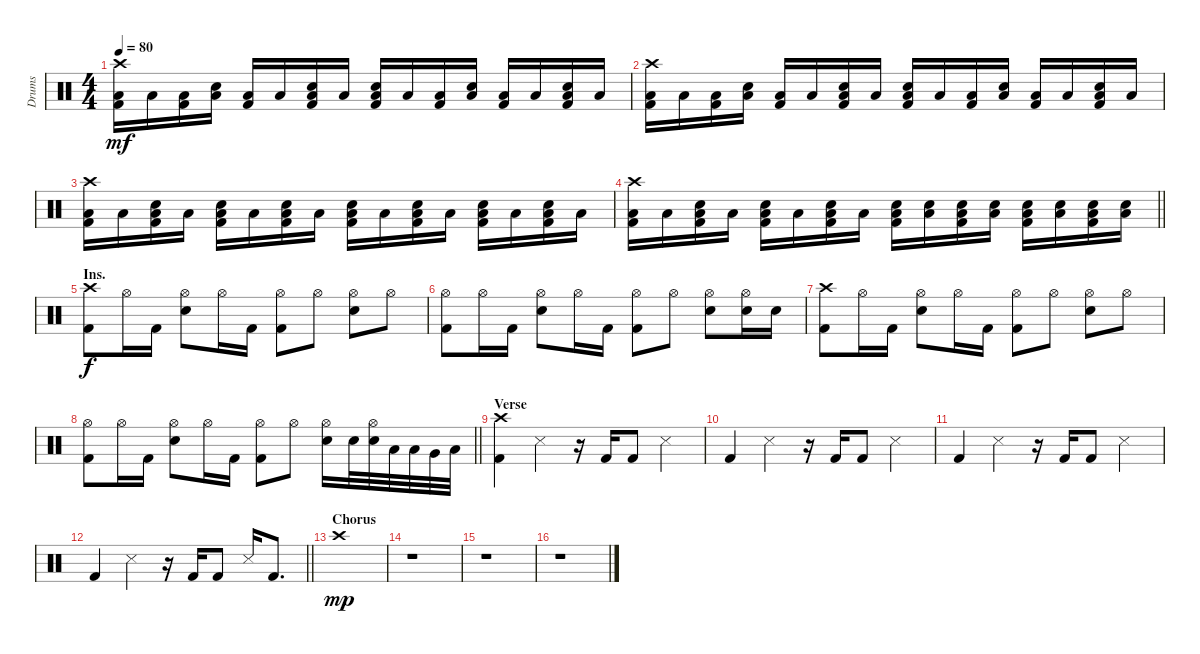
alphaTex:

\track ("Drums" "Drums") {instrument percussion}
\staff {score}
\articulation defaults
\ts (4 4)
\tempo 80
\clef neutral
\ks c
("Crash high (hit)" "Low Floor Tom (hit)" "Kick (hit) 2").16{dy mf} "Low Floor Tom (hit)".16 ("Low Floor Tom (hit)" "Kick (hit) 2").16 ("Electric Snare (hit)" "Low Floor Tom (hit)").16 ("Low Floor Tom (hit)" "Kick (hit) 2").16 "Low Floor Tom (hit)".16 ("Electric Snare (hit)" "Low Floor Tom (hit)" "Kick (hit) 2").16 "Low Floor Tom (hit)".16 ("Electric Snare (hit)" "Low Floor Tom (hit)" "Kick (hit) 2").16 "Low Floor Tom (hit)".16 ("Low Floor Tom (hit)" "Kick (hit) 2").16 ("Electric Snare (hit)" "Low Floor Tom (hit)").16 ("Low Floor Tom (hit)" "Kick (hit) 2").16 "Low Floor Tom (hit)".16 ("Electric Snare (hit)" "Low Floor Tom (hit)" "Kick (hit) 2").16 "Low Floor Tom (hit)".16 |
("Crash high (hit)" "Low Floor Tom (hit)" "Kick (hit) 2").16 "Low Floor Tom (hit)".16 ("Low Floor Tom (hit)" "Kick (hit) 2").16 ("Electric Snare (hit)" "Low Floor Tom (hit)").16 ("Low Floor Tom (hit)" "Kick (hit) 2").16 "Low Floor Tom (hit)".16 ("Electric Snare (hit)" "Low Floor Tom (hit)" "Kick (hit) 2").16 "Low Floor Tom (hit)".16 ("Electric Snare (hit)" "Low Floor Tom (hit)" "Kick (hit) 2").16 "Low Floor Tom (hit)".16 ("Low Floor Tom (hit)" "Kick (hit) 2").16 ("Electric Snare (hit)" "Low Floor Tom (hit)").16 ("Low Floor Tom (hit)" "Kick (hit) 2").16 "Low Floor Tom (hit)".16 ("Electric Snare (hit)" "Low Floor Tom (hit)" "Kick (hit) 2").16 "Low Floor Tom (hit)".16 |
("Crash high (hit)" "Low Floor Tom (hit)" "Kick (hit) 2").16 "Low Floor Tom (hit)".16 ("Electric Snare (hit)" "Low Floor Tom (hit)" "Kick (hit) 2").16 "Low Floor Tom (hit)".16 ("Electric Snare (hit)" "Low Floor Tom (hit)" "Kick (hit) 2").16 "Low Floor Tom (hit)".16 ("Electric Snare (hit)" "Low Floor Tom (hit)" "Kick (hit) 2").16 "Low Floor Tom (hit)".16 ("Electric Snare (hit)" "Low Floor Tom (hit)" "Kick (hit) 2").16 "Low Floor Tom (hit)".16 ("Electric Snare (hit)" "Low Floor Tom (hit)" "Kick (hit) 2").16 "Low Floor Tom (hit)".16 ("Electric Snare (hit)" "Low Floor Tom (hit)" "Kick (hit) 2").16 "Low Floor Tom (hit)".16 ("Electric Snare (hit)" "Low Floor Tom (hit)" "Kick (hit) 2").16 "Low Floor Tom (hit)".16 |
\barLineRight lightlight
("Crash high (hit)" "Low Floor Tom (hit)" "Kick (hit) 2").16 "Low Floor Tom (hit)".16 ("Electric Snare (hit)" "Low Floor Tom (hit)" "Kick (hit) 2").16 "Low Floor Tom (hit)".16 ("Electric Snare (hit)" "Low Floor Tom (hit)" "Kick (hit) 2").16 "Low Floor Tom (hit)".16 ("Electric Snare (hit)" "Low Floor Tom (hit)" "Kick (hit) 2").16 "Low Floor Tom (hit)".16 ("Electric Snare (hit)" "Low Floor Tom (hit)" "Kick (hit) 2").16 ("Electric Snare (hit)" "Low Floor Tom (hit)").16 ("Electric Snare (hit)" "Low Floor Tom (hit)" "Kick (hit) 2").16 ("Electric Snare (hit)" "Low Floor Tom (hit)").16 ("Electric Snare (hit)" "Low Floor Tom (hit)" "Kick (hit) 2").16 ("Electric Snare (hit)" "Low Floor Tom (hit)").16 ("Electric Snare (hit)" "Low Floor Tom (hit)" "Kick (hit) 2").16 ("Electric Snare (hit)" "Low Floor Tom (hit)").16 |
\section ("" "Ins.")
("Crash high (hit)" "Kick (hit) 2").8{dy f} "Hi-Hat (open)".16 "Kick (hit) 2".16 ("Hi-Hat (open)" "Electric Snare (hit)").8 "Hi-Hat (open)".16 "Kick (hit) 2".16 ("Hi-Hat (open)" "Kick (hit) 2").8 "Hi-Hat (open)".8 ("Hi-Hat (open)" "Electric Snare (hit)").8 "Hi-Hat (open)".8 |
("Hi-Hat (open)" "Kick (hit) 2").8 "Hi-Hat (open)".16 "Kick (hit) 2".16 ("Hi-Hat (open)" "Electric Snare (hit)").8 "Hi-Hat (open)".16 "Kick (hit) 2".16 ("Hi-Hat (open)" "Kick (hit) 2").8 "Hi-Hat (open)".8 ("Hi-Hat (open)" "Electric Snare (hit)").8 ("Hi-Hat (open)" "Electric Snare (hit)").16 "Electric Snare (hit)".16 |
("Crash high (hit)" "Kick (hit) 2").8 "Hi-Hat (open)".16 "Kick (hit) 2".16 ("Hi-Hat (open)" "Electric Snare (hit)").8 "Hi-Hat (open)".16 "Kick (hit) 2".16 ("Hi-Hat (open)" "Kick (hit) 2").8 "Hi-Hat (open)".8 ("Hi-Hat (open)" "Electric Snare (hit)").8 "Hi-Hat (open)".8 |
\barLineRight lightlight
("Hi-Hat (open)" "Kick (hit) 2").8 "Hi-Hat (open)".16 "Kick (hit) 2".16 ("Hi-Hat (open)" "Electric Snare (hit)").8 "Hi-Hat (open)".16 "Kick (hit) 2".16 ("Hi-Hat (open)" "Kick (hit) 2").8 "Hi-Hat (open)".8 ("Hi-Hat (open)" "Electric Snare (hit)").16 "Electric Snare (hit)".32 ("Hi-Hat (open)" "Electric Snare (hit)").32 "Low Tom (hit)".32 "Low Tom (hit)".32 "Very Low Tom (hit)".32 "Low Floor Tom (hit)".32 |
\section ("" "Verse")
("Crash high (hit)" "Kick (hit) 2").4 "Snare (side stick) 3".4 r.16 "Kick (hit) 2".16 "Kick (hit) 2".8 "Snare (side stick) 3".4 |
"Kick (hit) 2".4 "Snare (side stick) 3".4 r.16 "Kick (hit) 2".16 "Kick (hit) 2".8 "Snare (side stick) 3".4 |
"Kick (hit) 2".4 "Snare (side stick) 3".4 r.16 "Kick (hit) 2".16 "Kick (hit) 2".8 "Snare (side stick) 3".4 |
\barLineRight lightlight "Kick (hit) 2".4 "Snare (side stick) 3".4
r.16 "Kick (hit) 2".16 "Kick (hit) 2".8 "Snare (side stick) 3".16 "Kick (hit) 2".8{d} |
\section ("" "Chorus")
"Crash high (hit)".1{dy mp} |
r.1 |
r.1 |
r.1
